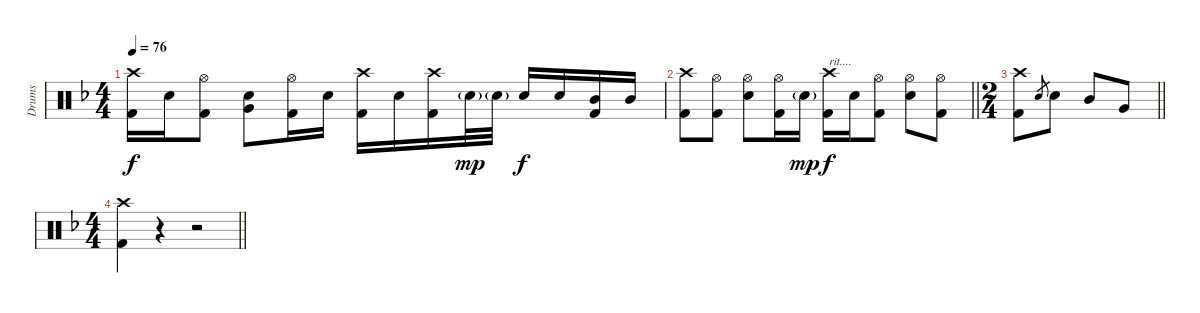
\track ("Drums" "Drums") {instrument percussion}
\staff {score}
\articulation defaults
\ts (4 4)
\tempo 76
\clef neutral
\ks f
("Crash high (hit)" "Kick (hit) 2").16{dy f} "Electric Snare (hit)".16 ("Hi-Hat (open)" "Kick (hit) 2").8 ("Very Low Tom (hit)" "Electric Snare (hit)").8 ("Hi-Hat (open)" "Kick (hit) 2").16 "Electric Snare (hit)".16 ("Crash high (hit)" "Kick (hit) 2").16 "Electric Snare (hit)".16 ("Crash high (hit)" "Kick (hit) 2").16 "Electric Snare (hit)"{g}.32{dy mp} "Electric Snare (hit)"{g}.32 "Electric Snare (hit)".16{dy f} "Electric Snare (hit)".16 ("Mid Tom (hit)" "Kick (hit) 2").16 "Mid Tom (hit)".16 |
\barLineRight lightlight
("Crash high (hit)" "Kick (hit) 2").8 ("Hi-Hat (open)" "Kick (hit) 2").8 ("Hi-Hat (open)" "Electric Snare (hit)").8 ("Hi-Hat (open)" "Kick (hit) 2").16 "Electric Snare (hit)"{g}.16{dy mp} ("Crash high (hit)" "Kick (hit) 2").16{txt "rit...." dy f} "Electric Snare (hit)".16 ("Hi-Hat (open)" "Kick (hit) 2").8 ("Hi-Hat (open)" "Electric Snare (hit)").8 ("Hi-Hat (open)" "Kick (hit) 2").8 |
\ts (2 4)
\barLineRight lightlight
("Crash high (hit)" "Kick (hit) 2").8 "Electric Snare (hit)".8{gr} "Electric Snare (hit)".8 "Mid Tom (hit)".8 "Very Low Tom (hit)".8 |
\ts (4 4)
\barLineRight lightlight
("Crash high (hit)" "Kick (hit) 2").4 r.4 r.2
